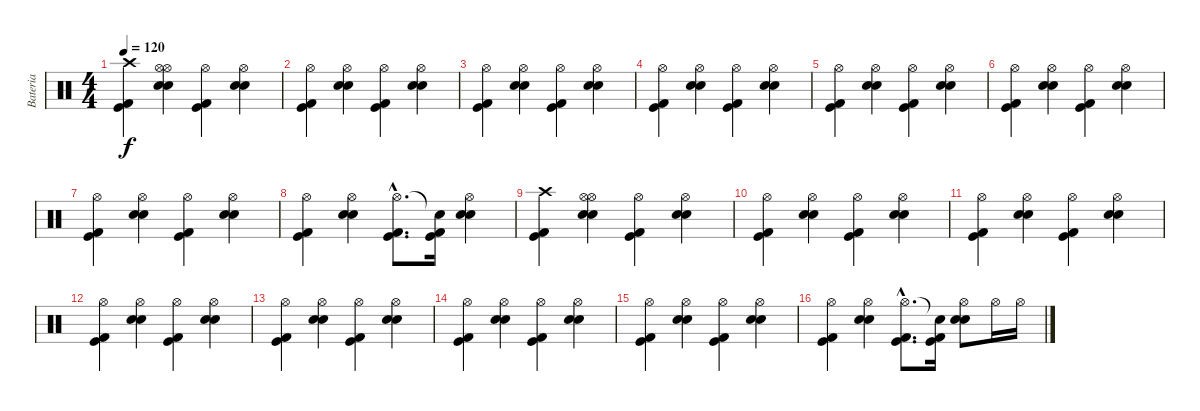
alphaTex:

\track ("Bateria" "Bateria") {instrument percussion}
\staff {score}
\articulation defaults
\ts (4 4)
\tempo 120
\clef neutral
\ks c
("Crash high (hit)" "Kick (hit) 2" "Kick (hit)").4{dy f} ("Hi-Hat (open)" "Electric Snare (hit)" "Snare (hit) 2" "Hi-Hat (open)").4 ("Hi-Hat (open)" "Kick (hit) 2" "Kick (hit)").4 ("Hi-Hat (open)" "Electric Snare (hit)" "Snare (hit) 2").4 |
("Hi-Hat (open)" "Kick (hit) 2" "Kick (hit)").4 ("Hi-Hat (open)" "Electric Snare (hit)" "Snare (hit) 2").4 ("Hi-Hat (open)" "Kick (hit) 2" "Kick (hit)").4 ("Hi-Hat (open)" "Electric Snare (hit)" "Snare (hit) 2").4 |
("Hi-Hat (open)" "Kick (hit) 2" "Kick (hit)").4 ("Hi-Hat (open)" "Electric Snare (hit)" "Snare (hit) 2").4 ("Hi-Hat (open)" "Kick (hit) 2" "Kick (hit)").4 ("Hi-Hat (open)" "Electric Snare (hit)" "Snare (hit) 2").4 |
("Hi-Hat (open)" "Kick (hit) 2" "Kick (hit)").4 ("Hi-Hat (open)" "Electric Snare (hit)" "Snare (hit) 2").4 ("Hi-Hat (open)" "Kick (hit) 2" "Kick (hit)").4 ("Hi-Hat (open)" "Electric Snare (hit)" "Snare (hit) 2").4 |
("Hi-Hat (open)" "Kick (hit) 2" "Kick (hit)").4 ("Hi-Hat (open)" "Electric Snare (hit)" "Snare (hit) 2").4 ("Hi-Hat (open)" "Kick (hit) 2" "Kick (hit)").4 ("Hi-Hat (open)" "Electric Snare (hit)" "Snare (hit) 2").4 |
("Hi-Hat (open)" "Kick (hit) 2" "Kick (hit)").4 ("Hi-Hat (open)" "Electric Snare (hit)" "Snare (hit) 2").4 ("Hi-Hat (open)" "Kick (hit) 2" "Kick (hit)").4 ("Hi-Hat (open)" "Electric Snare (hit)" "Snare (hit) 2").4 |
("Hi-Hat (open)" "Kick (hit) 2" "Kick (hit)").4 ("Hi-Hat (open)" "Electric Snare (hit)" "Snare (hit) 2").4 ("Hi-Hat (open)" "Kick (hit) 2" "Kick (hit)").4 ("Hi-Hat (open)" "Electric Snare (hit)" "Snare (hit) 2").4 |
("Hi-Hat (open)" "Kick (hit)" "Kick (hit) 2").4 ("Hi-Hat (open)" "Electric Snare (hit)" "Snare (hit) 2").4 ("Hi-Hat (open)"{hac} "Kick (hit)"{hac} "Kick (hit) 2"{hac}).8{d} ("Snare (hit)"{t} "Kick (hit) 2" "Kick (hit)").16 ("Hi-Hat (open)" "Electric Snare (hit)" "Snare (hit) 2").4 |
("Crash high (hit)" "Kick (hit)" "Kick (hit) 2").4 ("Hi-Hat (open)" "Electric Snare (hit)" "Snare (hit) 2" "Hi-Hat (open)").4 ("Hi-Hat (open)" "Kick (hit)" "Kick (hit) 2").4 ("Hi-Hat (open)" "Electric Snare (hit)" "Snare (hit) 2").4 |
("Hi-Hat (open)" "Kick (hit)" "Kick (hit) 2").4 ("Hi-Hat (open)" "Electric Snare (hit)" "Snare (hit) 2").4 ("Hi-Hat (open)" "Kick (hit)" "Kick (hit) 2").4 ("Hi-Hat (open)" "Electric Snare (hit)" "Snare (hit) 2").4 |
("Hi-Hat (open)" "Kick (hit)" "Kick (hit) 2").4 ("Hi-Hat (open)" "Electric Snare (hit)" "Snare (hit) 2").4 ("Hi-Hat (open)" "Kick (hit)" "Kick (hit) 2").4 ("Hi-Hat (open)" "Electric Snare (hit)" "Snare (hit) 2").4 |
("Hi-Hat (open)" "Kick (hit)" "Kick (hit) 2").4 ("Hi-Hat (open)" "Electric Snare (hit)" "Snare (hit) 2").4 ("Hi-Hat (open)" "Kick (hit)" "Kick (hit) 2").4 ("Hi-Hat (open)" "Electric Snare (hit)" "Snare (hit) 2").4 |
("Hi-Hat (open)" "Kick (hit)" "Kick (hit) 2").4 ("Hi-Hat (open)" "Electric Snare (hit)" "Snare (hit) 2").4 ("Hi-Hat (open)" "Kick (hit)" "Kick (hit) 2").4 ("Hi-Hat (open)" "Electric Snare (hit)" "Snare (hit) 2").4 |
("Hi-Hat (open)" "Kick (hit)" "Kick (hit) 2").4 ("Hi-Hat (open)" "Electric Snare (hit)" "Snare (hit) 2").4 ("Hi-Hat (open)" "Kick (hit)" "Kick (hit) 2").4 ("Hi-Hat (open)" "Electric Snare (hit)" "Snare (hit) 2").4 |
("Hi-Hat (open)" "Kick (hit)" "Kick (hit) 2").4 ("Hi-Hat (open)" "Electric Snare (hit)" "Snare (hit) 2").4 ("Hi-Hat (open)" "Kick (hit)" "Kick (hit) 2").4 ("Hi-Hat (open)" "Electric Snare (hit)" "Snare (hit) 2").4 |
("Hi-Hat (open)" "Kick (hit)" "Kick (hit) 2").4 ("Hi-Hat (open)" "Electric Snare (hit)" "Snare (hit) 2").4 ("Hi-Hat (open)"{hac} "Kick (hit)"{hac} "Kick (hit) 2"{hac}).8{d} ("Snare (hit)"{t} "Kick (hit)" "Kick (hit) 2").16 ("Hi-Hat (open)" "Electric Snare (hit)" "Snare (hit) 2").8 "Hi-Hat (open)".16 "Hi-Hat (open)".16
